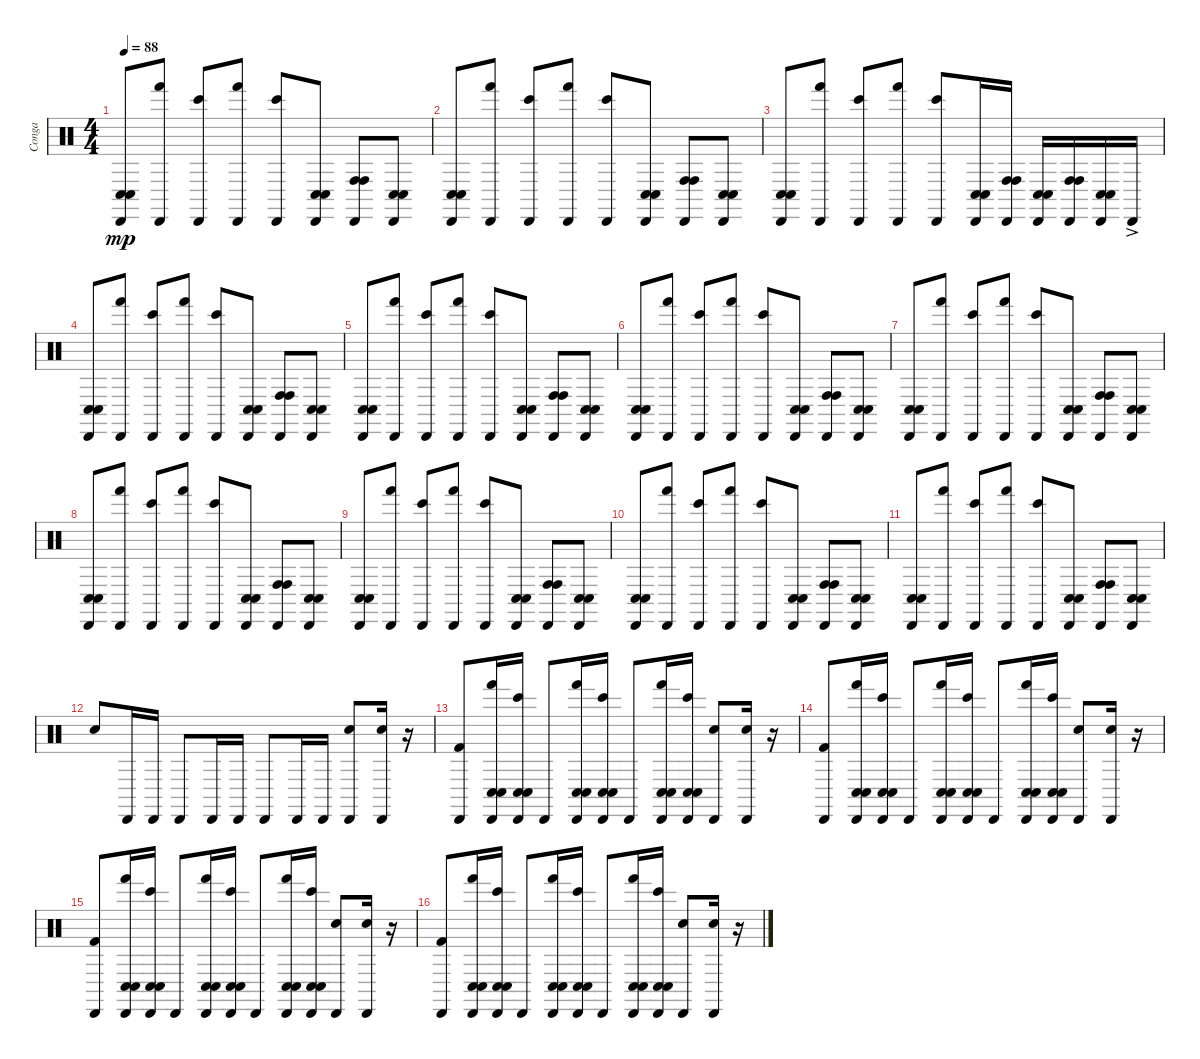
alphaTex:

\track ("Conga" "Conga") {instrument percussion}
\staff {score}
\articulation defaults
\ts (4 4)
\tempo 88
\clef neutral
\ks c
("Cabasa (hit)" "Conga low (hit)" "Conga low (hit)").8{dy mp} ("Cabasa (hit)" "Hand (hit)").8 ("Cabasa (hit)" "Bongo High (hit)").8 ("Cabasa (hit)" "Hand (hit)").8 ("Cabasa (hit)" "Bongo High (hit)").8 ("Cabasa (hit)" "Conga low (hit)" "Conga low (hit)").8 ("Cabasa (hit)" "Conga high (hit)" "Conga high (hit)").8 ("Cabasa (hit)" "Conga low (hit)" "Conga low (hit)").8 |
("Cabasa (hit)" "Conga low (hit)" "Conga low (hit)").8 ("Cabasa (hit)" "Hand (hit)").8 ("Cabasa (hit)" "Bongo High (hit)").8 ("Cabasa (hit)" "Hand (hit)").8 ("Cabasa (hit)" "Bongo High (hit)").8 ("Cabasa (hit)" "Conga low (hit)" "Conga low (hit)").8 ("Cabasa (hit)" "Conga high (hit)" "Conga high (hit)").8 ("Cabasa (hit)" "Conga low (hit)" "Conga low (hit)").8 |
("Cabasa (hit)" "Conga low (hit)" "Conga low (hit)").8 ("Cabasa (hit)" "Hand (hit)").8 ("Cabasa (hit)" "Bongo High (hit)").8 ("Cabasa (hit)" "Hand (hit)").8 ("Cabasa (hit)" "Bongo High (hit)").8 ("Cabasa (hit)" "Conga low (hit)" "Conga low (hit)").16 ("Cabasa (hit)" "Conga high (hit)" "Conga high (hit)").16 ("Cabasa (hit)" "Conga low (hit)" "Conga low (hit)").16 ("Cabasa (hit)" "Conga high (hit)" "Conga high (hit)").16 ("Cabasa (hit)" "Conga low (hit)" "Conga low (hit)").16 "Cabasa (hit)"{ac}.16 |
("Cabasa (hit)" "Conga low (hit)" "Conga low (hit)").8 ("Cabasa (hit)" "Hand (hit)").8 ("Cabasa (hit)" "Bongo High (hit)").8 ("Cabasa (hit)" "Hand (hit)").8 ("Cabasa (hit)" "Bongo High (hit)").8 ("Cabasa (hit)" "Conga low (hit)" "Conga low (hit)").8 ("Cabasa (hit)" "Conga high (hit)" "Conga high (hit)").8 ("Cabasa (hit)" "Conga low (hit)" "Conga low (hit)").8 |
("Cabasa (hit)" "Conga low (hit)" "Conga low (hit)").8 ("Cabasa (hit)" "Hand (hit)").8 ("Cabasa (hit)" "Bongo High (hit)").8 ("Cabasa (hit)" "Hand (hit)").8 ("Cabasa (hit)" "Bongo High (hit)").8 ("Cabasa (hit)" "Conga low (hit)" "Conga low (hit)").8 ("Cabasa (hit)" "Conga high (hit)" "Conga high (hit)").8 ("Cabasa (hit)" "Conga low (hit)" "Conga low (hit)").8 |
("Cabasa (hit)" "Conga low (hit)" "Conga low (hit)").8 ("Cabasa (hit)" "Hand (hit)").8 ("Cabasa (hit)" "Bongo High (hit)").8 ("Cabasa (hit)" "Hand (hit)").8 ("Cabasa (hit)" "Bongo High (hit)").8 ("Cabasa (hit)" "Conga low (hit)" "Conga low (hit)").8 ("Cabasa (hit)" "Conga high (hit)" "Conga high (hit)").8 ("Cabasa (hit)" "Conga low (hit)" "Conga low (hit)").8 |
("Cabasa (hit)" "Conga low (hit)" "Conga low (hit)").8 ("Cabasa (hit)" "Hand (hit)").8 ("Cabasa (hit)" "Bongo High (hit)").8 ("Cabasa (hit)" "Hand (hit)").8 ("Cabasa (hit)" "Bongo High (hit)").8 ("Cabasa (hit)" "Conga low (hit)" "Conga low (hit)").8 ("Cabasa (hit)" "Conga high (hit)" "Conga high (hit)").8 ("Cabasa (hit)" "Conga low (hit)" "Conga low (hit)").8 |
("Cabasa (hit)" "Conga low (hit)" "Conga low (hit)").8 ("Cabasa (hit)" "Hand (hit)").8 ("Cabasa (hit)" "Bongo High (hit)").8 ("Cabasa (hit)" "Hand (hit)").8 ("Cabasa (hit)" "Bongo High (hit)").8 ("Cabasa (hit)" "Conga low (hit)" "Conga low (hit)").8 ("Cabasa (hit)" "Conga high (hit)" "Conga high (hit)").8 ("Cabasa (hit)" "Conga low (hit)" "Conga low (hit)").8 |
("Cabasa (hit)" "Conga low (hit)" "Conga low (hit)").8 ("Cabasa (hit)" "Hand (hit)").8 ("Cabasa (hit)" "Bongo High (hit)").8 ("Cabasa (hit)" "Hand (hit)").8 ("Cabasa (hit)" "Bongo High (hit)").8 ("Cabasa (hit)" "Conga low (hit)" "Conga low (hit)").8 ("Cabasa (hit)" "Conga high (hit)" "Conga high (hit)").8 ("Cabasa (hit)" "Conga low (hit)" "Conga low (hit)").8 |
("Cabasa (hit)" "Conga low (hit)" "Conga low (hit)").8 ("Cabasa (hit)" "Hand (hit)").8 ("Cabasa (hit)" "Bongo High (hit)").8 ("Cabasa (hit)" "Hand (hit)").8 ("Cabasa (hit)" "Bongo High (hit)").8 ("Cabasa (hit)" "Conga low (hit)" "Conga low (hit)").8 ("Cabasa (hit)" "Conga high (hit)" "Conga high (hit)").8 ("Cabasa (hit)" "Conga low (hit)" "Conga low (hit)").8 |
("Cabasa (hit)" "Conga low (hit)" "Conga low (hit)").8 ("Cabasa (hit)" "Hand (hit)").8 ("Cabasa (hit)" "Bongo High (hit)").8 ("Cabasa (hit)" "Hand (hit)").8 ("Cabasa (hit)" "Bongo High (hit)").8 ("Cabasa (hit)" "Conga low (hit)" "Conga low (hit)").8 ("Cabasa (hit)" "Conga high (hit)" "Conga high (hit)").8 ("Cabasa (hit)" "Conga low (hit)" "Conga low (hit)").8 |
"Electric Snare (hit)".8 "Cabasa (hit)".16 "Cabasa (hit)".16 "Cabasa (hit)".8 "Cabasa (hit)".16 "Cabasa (hit)".16 "Cabasa (hit)".8 "Cabasa (hit)".16 "Cabasa (hit)".16 ("Cabasa (hit)" "Electric Snare (hit)").8 ("Cabasa (hit)" "Electric Snare (hit)").16 r.16 |
("Cabasa (hit)" "Kick (hit) 2").8 ("Cabasa (hit)" "Conga low (hit)" "Conga low (hit)" "Hand (hit)").16 ("Cabasa (hit)" "Conga low (hit)" "Conga low (hit)" "Bongo High (hit)").16 "Cabasa (hit)".8 ("Cabasa (hit)" "Conga low (hit)" "Conga low (hit)" "Hand (hit)").16 ("Cabasa (hit)" "Conga low (hit)" "Conga low (hit)" "Bongo High (hit)").16 "Cabasa (hit)".8 ("Cabasa (hit)" "Conga low (hit)" "Conga low (hit)" "Hand (hit)").16 ("Cabasa (hit)" "Conga low (hit)" "Conga low (hit)" "Bongo High (hit)").16 ("Cabasa (hit)" "Electric Snare (hit)").8 ("Cabasa (hit)" "Electric Snare (hit)").16 r.16 |
("Cabasa (hit)" "Kick (hit) 2").8 ("Cabasa (hit)" "Conga low (hit)" "Conga low (hit)" "Hand (hit)").16 ("Cabasa (hit)" "Conga low (hit)" "Conga low (hit)" "Bongo High (hit)").16 "Cabasa (hit)".8 ("Cabasa (hit)" "Conga low (hit)" "Conga low (hit)" "Hand (hit)").16 ("Cabasa (hit)" "Conga low (hit)" "Conga low (hit)" "Bongo High (hit)").16 "Cabasa (hit)".8 ("Cabasa (hit)" "Conga low (hit)" "Conga low (hit)" "Hand (hit)").16 ("Cabasa (hit)" "Conga low (hit)" "Conga low (hit)" "Bongo High (hit)").16 ("Cabasa (hit)" "Electric Snare (hit)").8 ("Cabasa (hit)" "Electric Snare (hit)").16 r.16 |
("Cabasa (hit)" "Kick (hit) 2").8 ("Cabasa (hit)" "Conga low (hit)" "Conga low (hit)" "Hand (hit)").16 ("Cabasa (hit)" "Conga low (hit)" "Conga low (hit)" "Bongo High (hit)").16 "Cabasa (hit)".8 ("Cabasa (hit)" "Conga low (hit)" "Conga low (hit)" "Hand (hit)").16 ("Cabasa (hit)" "Conga low (hit)" "Conga low (hit)" "Bongo High (hit)").16 "Cabasa (hit)".8 ("Cabasa (hit)" "Conga low (hit)" "Conga low (hit)" "Hand (hit)").16 ("Cabasa (hit)" "Conga low (hit)" "Conga low (hit)" "Bongo High (hit)").16 ("Cabasa (hit)" "Electric Snare (hit)").8 ("Cabasa (hit)" "Electric Snare (hit)").16 r.16 |
("Cabasa (hit)" "Kick (hit) 2").8 ("Cabasa (hit)" "Conga low (hit)" "Conga low (hit)" "Hand (hit)").16 ("Cabasa (hit)" "Conga low (hit)" "Conga low (hit)" "Bongo High (hit)").16 "Cabasa (hit)".8 ("Cabasa (hit)" "Conga low (hit)" "Conga low (hit)" "Hand (hit)").16 ("Cabasa (hit)" "Conga low (hit)" "Conga low (hit)" "Bongo High (hit)").16 "Cabasa (hit)".8 ("Cabasa (hit)" "Conga low (hit)" "Conga low (hit)" "Hand (hit)").16 ("Cabasa (hit)" "Conga low (hit)" "Conga low (hit)" "Bongo High (hit)").16 ("Cabasa (hit)" "Electric Snare (hit)").8 ("Cabasa (hit)" "Electric Snare (hit)").16 r.16
